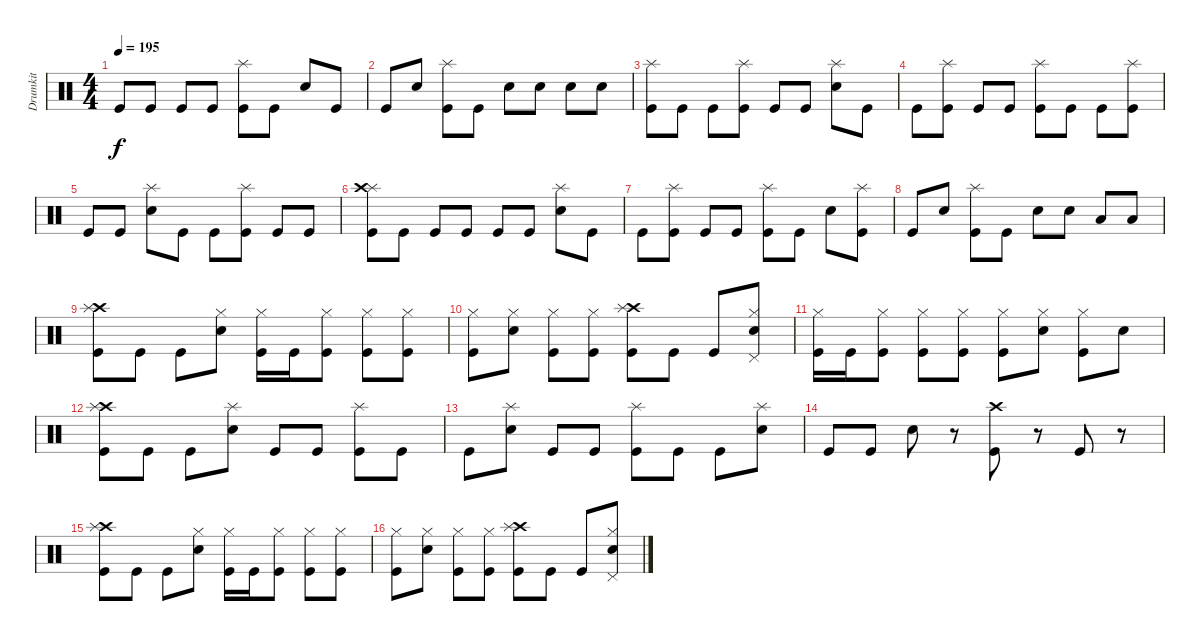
\track ("Drumkit" "Drumkit") {instrument percussion}
\staff {score}
\articulation defaults
\ts (4 4)
\tempo 195
\clef neutral
\ks c "Kick (hit)".8{dy f} "Kick (hit)".8 "Kick (hit)".8 "Kick (hit)".8
("Kick (hit)" "Splash (hit)").8 "Kick (hit)".8 "Snare (hit) 2".8 "Kick (hit)".8 |
"Kick (hit)".8 "Snare (hit) 2".8 ("Kick (hit)" "Splash (hit)").8 "Kick (hit)".8 "Snare (hit) 2".8 "Snare (hit) 2".8 "Snare (hit) 2".8 "Snare (hit) 2".8 |
("Kick (hit)" "Splash (hit)").8 "Kick (hit)".8 "Kick (hit)".8 ("Kick (hit)" "Splash (hit)").8 "Kick (hit)".8 "Kick (hit)".8 ("Snare (hit) 2" "Splash (hit)").8 "Kick (hit)".8 |
"Kick (hit)".8 ("Kick (hit)" "Splash (hit)").8 "Kick (hit)".8 "Kick (hit)".8 ("Kick (hit)" "Splash (hit)").8 "Kick (hit)".8 "Kick (hit)".8 ("Kick (hit)" "Splash (hit)").8 |
"Kick (hit)".8 "Kick (hit)".8 ("Snare (hit) 2" "Splash (hit)").8 "Kick (hit)".8 "Kick (hit)".8 ("Kick (hit)" "Splash (hit)").8 "Kick (hit)".8 "Kick (hit)".8 |
("Kick (hit)" "Splash (hit)" "Crash high (hit)").8 "Kick (hit)".8 "Kick (hit)".8 "Kick (hit)".8 "Kick (hit)".8 "Kick (hit)".8 ("Snare (hit) 2" "Splash (hit)").8 "Kick (hit)".8 |
"Kick (hit)".8 ("Kick (hit)" "Splash (hit)").8 "Kick (hit)".8 "Kick (hit)".8 ("Kick (hit)" "Splash (hit)").8 "Kick (hit)".8 "Snare (hit) 2".8 ("Kick (hit)" "Splash (hit)").8 |
"Kick (hit)".8 "Snare (hit) 2".8 ("Kick (hit)" "Splash (hit)").8 "Kick (hit)".8 "Snare (hit) 2".8 "Snare (hit) 2".8 "Low Floor Tom (hit)".8 "Low Floor Tom (hit)".8 |
("Kick (hit)" "Crash high (hit)" "Splash (hit)").8 "Kick (hit)".8 "Kick (hit)".8 ("Snare (hit) 2" "Hi-Hat (closed)").8 ("Kick (hit)" "Hi-Hat (closed)").16 "Kick (hit)".16 ("Kick (hit)" "Hi-Hat (closed)").8 ("Kick (hit)" "Hi-Hat (closed)").8 ("Kick (hit)" "Hi-Hat (closed)").8 |
("Kick (hit)" "Hi-Hat (closed)").8 ("Snare (hit) 2" "Hi-Hat (closed)").8 ("Kick (hit)" "Hi-Hat (closed)").8 ("Kick (hit)" "Hi-Hat (closed)").8 ("Kick (hit)" "Crash high (hit)" "Splash (hit)").8 "Kick (hit)".8 "Kick (hit)".8 ("Snare (hit) 2" "Pedal Hi-Hat (hit)" "Hi-Hat (closed)").8 |
("Kick (hit)" "Hi-Hat (closed)").16 "Kick (hit)".16 ("Kick (hit)" "Hi-Hat (closed)").8 ("Kick (hit)" "Hi-Hat (closed)").8 ("Kick (hit)" "Hi-Hat (closed)").8 ("Kick (hit)" "Hi-Hat (closed)").8 ("Snare (hit) 2" "Hi-Hat (closed)").8 ("Kick (hit)" "Hi-Hat (closed)").8 "Snare (hit) 2".8 |
("Kick (hit)" "Crash high (hit)" "Splash (hit)").8 "Kick (hit)".8 "Kick (hit)".8 ("Snare (hit) 2" "Splash (hit)").8 "Kick (hit)".8 "Kick (hit)".8 ("Kick (hit)" "Splash (hit)").8 "Kick (hit)".8 |
"Kick (hit)".8 ("Snare (hit) 2" "Splash (hit)").8 "Kick (hit)".8 "Kick (hit)".8 ("Kick (hit)" "Splash (hit)").8 "Kick (hit)".8 "Kick (hit)".8 ("Snare (hit) 2" "Splash (hit)").8 |
"Kick (hit)".8 "Kick (hit)".8 "Snare (hit) 2".8 r.8 ("Kick (hit)" "Crash high (hit)").8 r.8 "Kick (hit)".8 r.8 |
("Kick (hit)" "Crash high (hit)" "Splash (hit)").8 "Kick (hit)".8 "Kick (hit)".8 ("Snare (hit) 2" "Hi-Hat (closed)").8 ("Kick (hit)" "Hi-Hat (closed)").16 "Kick (hit)".16 ("Kick (hit)" "Hi-Hat (closed)").8 ("Kick (hit)" "Hi-Hat (closed)").8 ("Kick (hit)" "Hi-Hat (closed)").8 |
("Kick (hit)" "Hi-Hat (closed)").8 ("Snare (hit) 2" "Hi-Hat (closed)").8 ("Kick (hit)" "Hi-Hat (closed)").8 ("Kick (hit)" "Hi-Hat (closed)").8 ("Kick (hit)" "Crash high (hit)" "Splash (hit)").8 "Kick (hit)".8 "Kick (hit)".8 ("Snare (hit) 2" "Pedal Hi-Hat (hit)" "Hi-Hat (closed)").8
